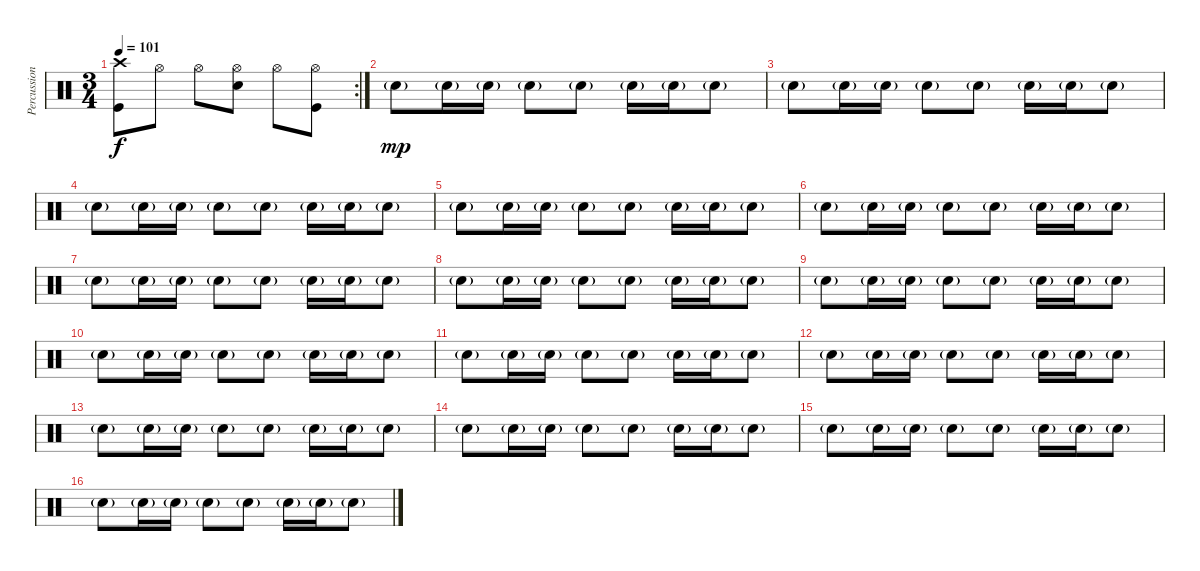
\track ("Percussion" "Percussion") {instrument percussion}
\staff {score}
\articulation defaults
\rc 2
\ts (3 4)
\tempo 101
\clef neutral
\ks c
("Crash high (hit)" "Kick (hit)").8{dy f} "Hi-Hat (open)".8 "Hi-Hat (open)".8 ("Hi-Hat (open)" "Snare (hit) 2").8 "Hi-Hat (open)".8 ("Hi-Hat (open)" "Kick (hit)").8 |
"Snare (hit) 2"{g}.8{dy mp} "Snare (hit) 2"{g}.16 "Snare (hit) 2"{g}.16 "Snare (hit) 2"{g}.8 "Snare (hit) 2"{g}.8 "Snare (hit) 2"{g}.16 "Snare (hit) 2"{g}.16 "Snare (hit) 2"{g}.8 |
"Snare (hit) 2"{g}.8 "Snare (hit) 2"{g}.16 "Snare (hit) 2"{g}.16 "Snare (hit) 2"{g}.8 "Snare (hit) 2"{g}.8 "Snare (hit) 2"{g}.16 "Snare (hit) 2"{g}.16 "Snare (hit) 2"{g}.8 |
"Snare (hit) 2"{g}.8 "Snare (hit) 2"{g}.16 "Snare (hit) 2"{g}.16 "Snare (hit) 2"{g}.8 "Snare (hit) 2"{g}.8 "Snare (hit) 2"{g}.16 "Snare (hit) 2"{g}.16 "Snare (hit) 2"{g}.8 |
"Snare (hit) 2"{g}.8 "Snare (hit) 2"{g}.16 "Snare (hit) 2"{g}.16 "Snare (hit) 2"{g}.8 "Snare (hit) 2"{g}.8 "Snare (hit) 2"{g}.16 "Snare (hit) 2"{g}.16 "Snare (hit) 2"{g}.8 |
"Snare (hit) 2"{g}.8 "Snare (hit) 2"{g}.16 "Snare (hit) 2"{g}.16 "Snare (hit) 2"{g}.8 "Snare (hit) 2"{g}.8 "Snare (hit) 2"{g}.16 "Snare (hit) 2"{g}.16 "Snare (hit) 2"{g}.8 |
"Snare (hit) 2"{g}.8 "Snare (hit) 2"{g}.16 "Snare (hit) 2"{g}.16 "Snare (hit) 2"{g}.8 "Snare (hit) 2"{g}.8 "Snare (hit) 2"{g}.16 "Snare (hit) 2"{g}.16 "Snare (hit) 2"{g}.8 |
"Snare (hit) 2"{g}.8 "Snare (hit) 2"{g}.16 "Snare (hit) 2"{g}.16 "Snare (hit) 2"{g}.8 "Snare (hit) 2"{g}.8 "Snare (hit) 2"{g}.16 "Snare (hit) 2"{g}.16 "Snare (hit) 2"{g}.8 |
"Snare (hit) 2"{g}.8 "Snare (hit) 2"{g}.16 "Snare (hit) 2"{g}.16 "Snare (hit) 2"{g}.8 "Snare (hit) 2"{g}.8 "Snare (hit) 2"{g}.16 "Snare (hit) 2"{g}.16 "Snare (hit) 2"{g}.8 |
"Snare (hit) 2"{g}.8 "Snare (hit) 2"{g}.16 "Snare (hit) 2"{g}.16 "Snare (hit) 2"{g}.8 "Snare (hit) 2"{g}.8 "Snare (hit) 2"{g}.16 "Snare (hit) 2"{g}.16 "Snare (hit) 2"{g}.8 |
"Snare (hit) 2"{g}.8 "Snare (hit) 2"{g}.16 "Snare (hit) 2"{g}.16 "Snare (hit) 2"{g}.8 "Snare (hit) 2"{g}.8 "Snare (hit) 2"{g}.16 "Snare (hit) 2"{g}.16 "Snare (hit) 2"{g}.8 |
"Snare (hit) 2"{g}.8 "Snare (hit) 2"{g}.16 "Snare (hit) 2"{g}.16 "Snare (hit) 2"{g}.8 "Snare (hit) 2"{g}.8 "Snare (hit) 2"{g}.16 "Snare (hit) 2"{g}.16 "Snare (hit) 2"{g}.8 |
"Snare (hit) 2"{g}.8 "Snare (hit) 2"{g}.16 "Snare (hit) 2"{g}.16 "Snare (hit) 2"{g}.8 "Snare (hit) 2"{g}.8 "Snare (hit) 2"{g}.16 "Snare (hit) 2"{g}.16 "Snare (hit) 2"{g}.8 |
"Snare (hit) 2"{g}.8 "Snare (hit) 2"{g}.16 "Snare (hit) 2"{g}.16 "Snare (hit) 2"{g}.8 "Snare (hit) 2"{g}.8 "Snare (hit) 2"{g}.16 "Snare (hit) 2"{g}.16 "Snare (hit) 2"{g}.8 |
"Snare (hit) 2"{g}.8 "Snare (hit) 2"{g}.16 "Snare (hit) 2"{g}.16 "Snare (hit) 2"{g}.8 "Snare (hit) 2"{g}.8 "Snare (hit) 2"{g}.16 "Snare (hit) 2"{g}.16 "Snare (hit) 2"{g}.8 |
"Snare (hit) 2"{g}.8 "Snare (hit) 2"{g}.16 "Snare (hit) 2"{g}.16 "Snare (hit) 2"{g}.8 "Snare (hit) 2"{g}.8 "Snare (hit) 2"{g}.16 "Snare (hit) 2"{g}.16 "Snare (hit) 2"{g}.8
